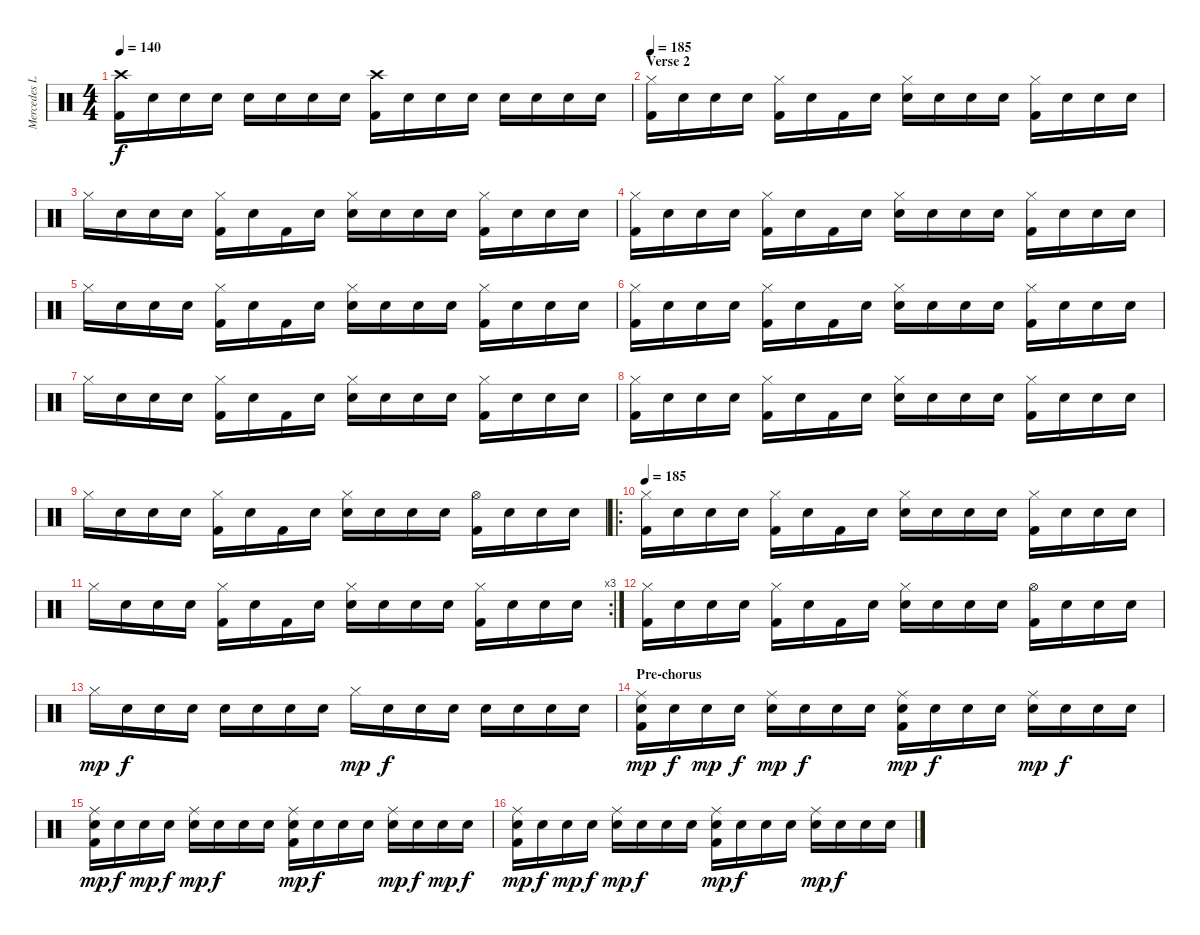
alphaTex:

\track ("Mercedes Lander - Drums" "Mercedes L") {instrument percussion}
\staff {score}
\articulation defaults
\ts (4 4)
\tempo 140
\clef neutral
\ks c
("Crash high (hit)" "Kick (hit) 2").16{dy f} "Snare (hit)".16 "Snare (hit)".16 "Snare (hit)".16 "Snare (hit)".16 "Snare (hit)".16 "Snare (hit)".16 "Snare (hit)".16 ("Crash high (hit)" "Kick (hit) 2").16 "Snare (hit)".16 "Snare (hit)".16 "Snare (hit)".16 "Snare (hit)".16 "Snare (hit)".16 "Snare (hit)".16 "Snare (hit)".16 |
\section ("" "Verse 2")
\tempo 185
("Hi-Hat (closed)" "Kick (hit) 2").16{volume 16 balance 8} "Snare (hit)".16 "Snare (hit)".16 "Snare (hit)".16 ("Hi-Hat (closed)" "Kick (hit) 2").16 "Snare (hit)".16 "Kick (hit) 2".16 "Snare (hit)".16 ("Hi-Hat (closed)" "Snare (hit) 2").16 "Snare (hit)".16 "Snare (hit)".16 "Snare (hit)".16 ("Hi-Hat (closed)" "Kick (hit) 2").16 "Snare (hit)".16 "Snare (hit)".16 "Snare (hit)".16 |
"Hi-Hat (closed)".16 "Snare (hit)".16 "Snare (hit)".16 "Snare (hit)".16 ("Hi-Hat (closed)" "Kick (hit) 2").16 "Snare (hit)".16 "Kick (hit) 2".16 "Snare (hit)".16 ("Hi-Hat (closed)" "Electric Snare (hit)").16 "Snare (hit)".16 "Snare (hit)".16 "Snare (hit)".16 ("Hi-Hat (closed)" "Kick (hit) 2").16 "Snare (hit)".16 "Snare (hit)".16 "Snare (hit)".16 |
("Hi-Hat (closed)" "Kick (hit) 2").16 "Snare (hit)".16 "Snare (hit)".16 "Snare (hit)".16 ("Hi-Hat (closed)" "Kick (hit) 2").16 "Snare (hit)".16 "Kick (hit) 2".16 "Snare (hit)".16 ("Hi-Hat (closed)" "Snare (hit) 2").16 "Snare (hit)".16 "Snare (hit)".16 "Snare (hit)".16 ("Hi-Hat (closed)" "Kick (hit) 2").16 "Snare (hit)".16 "Snare (hit)".16 "Snare (hit)".16 |
"Hi-Hat (closed)".16 "Snare (hit)".16 "Snare (hit)".16 "Snare (hit)".16 ("Hi-Hat (closed)" "Kick (hit) 2").16 "Snare (hit)".16 "Kick (hit) 2".16 "Snare (hit)".16 ("Hi-Hat (closed)" "Electric Snare (hit)").16 "Snare (hit)".16 "Snare (hit)".16 "Snare (hit)".16 ("Hi-Hat (closed)" "Kick (hit) 2").16 "Snare (hit)".16 "Snare (hit)".16 "Snare (hit)".16 |
("Hi-Hat (closed)" "Kick (hit) 2").16 "Snare (hit)".16 "Snare (hit)".16 "Snare (hit)".16 ("Hi-Hat (closed)" "Kick (hit) 2").16 "Snare (hit)".16 "Kick (hit) 2".16 "Snare (hit)".16 ("Hi-Hat (closed)" "Snare (hit) 2").16 "Snare (hit)".16 "Snare (hit)".16 "Snare (hit)".16 ("Hi-Hat (closed)" "Kick (hit) 2").16 "Snare (hit)".16 "Snare (hit)".16 "Snare (hit)".16 |
"Hi-Hat (closed)".16 "Snare (hit)".16 "Snare (hit)".16 "Snare (hit)".16 ("Hi-Hat (closed)" "Kick (hit) 2").16 "Snare (hit)".16 "Kick (hit) 2".16 "Snare (hit)".16 ("Hi-Hat (closed)" "Electric Snare (hit)").16 "Snare (hit)".16 "Snare (hit)".16 "Snare (hit)".16 ("Hi-Hat (closed)" "Kick (hit) 2").16 "Snare (hit)".16 "Snare (hit)".16 "Snare (hit)".16 |
("Hi-Hat (closed)" "Kick (hit) 2").16 "Snare (hit)".16 "Snare (hit)".16 "Snare (hit)".16 ("Hi-Hat (closed)" "Kick (hit) 2").16 "Snare (hit)".16 "Kick (hit) 2".16 "Snare (hit)".16 ("Hi-Hat (closed)" "Snare (hit) 2").16 "Snare (hit)".16 "Snare (hit)".16 "Snare (hit)".16 ("Hi-Hat (closed)" "Kick (hit) 2").16 "Snare (hit)".16 "Snare (hit)".16 "Snare (hit)".16 |
"Hi-Hat (closed)".16 "Snare (hit)".16 "Snare (hit)".16 "Snare (hit)".16 ("Hi-Hat (closed)" "Kick (hit) 2").16 "Snare (hit)".16 "Kick (hit) 2".16 "Snare (hit)".16 ("Hi-Hat (closed)" "Electric Snare (hit)").16 "Snare (hit)".16 "Snare (hit)".16 "Snare (hit)".16 ("Hi-Hat (open)" "Kick (hit) 2").16 "Snare (hit)".16 "Snare (hit)".16 "Snare (hit)".16 |
\ro
\tempo 185
("Hi-Hat (closed)" "Kick (hit) 2").16{volume 16 balance 8} "Snare (hit)".16 "Snare (hit)".16 "Snare (hit)".16 ("Hi-Hat (closed)" "Kick (hit) 2").16 "Snare (hit)".16 "Kick (hit) 2".16 "Snare (hit)".16 ("Hi-Hat (closed)" "Snare (hit) 2").16 "Snare (hit)".16 "Snare (hit)".16 "Snare (hit)".16 ("Hi-Hat (closed)" "Kick (hit) 2").16 "Snare (hit)".16 "Snare (hit)".16 "Snare (hit)".16 |
\rc 3 "Hi-Hat (closed)".16 "Snare (hit)".16 "Snare (hit)".16 "Snare (hit)".16
("Hi-Hat (closed)" "Kick (hit) 2").16 "Snare (hit)".16 "Kick (hit) 2".16 "Snare (hit)".16 ("Hi-Hat (closed)" "Electric Snare (hit)").16 "Snare (hit)".16 "Snare (hit)".16 "Snare (hit)".16 ("Hi-Hat (closed)" "Kick (hit) 2").16 "Snare (hit)".16 "Snare (hit)".16 "Snare (hit)".16 |
("Hi-Hat (closed)" "Kick (hit) 2").16 "Snare (hit)".16 "Snare (hit)".16 "Snare (hit)".16 ("Hi-Hat (closed)" "Kick (hit) 2").16 "Snare (hit)".16 "Kick (hit) 2".16 "Snare (hit)".16 ("Hi-Hat (closed)" "Snare (hit) 2").16 "Snare (hit)".16 "Snare (hit)".16 "Snare (hit)".16 ("Hi-Hat (open)" "Kick (hit) 2").16 "Snare (hit)".16 "Snare (hit)".16 "Snare (hit)".16 |
"Hi-Hat (closed)".16{dy mp} "Snare (hit)".16{dy f} "Snare (hit)".16 "Snare (hit)".16 "Snare (hit)".16 "Snare (hit)".16 "Snare (hit)".16 "Snare (hit)".16 "Hi-Hat (closed)".16{dy mp} "Snare (hit)".16{dy f} "Snare (hit)".16 "Snare (hit)".16 "Snare (hit)".16 "Snare (hit)".16 "Snare (hit)".16 "Snare (hit)".16 |
\section ("" "Pre-chorus")
("Ride (middle)" "Electric Snare (hit)" "Kick (hit) 2").16{dy mp} "Snare (hit)".16{dy f} "Electric Snare (hit)".16{dy mp} "Snare (hit)".16{dy f} ("Ride (middle)" "Electric Snare (hit)").16{dy mp} "Snare (hit)".16{dy f} "Snare (hit)".16 "Snare (hit)".16 ("Ride (middle)" "Electric Snare (hit)" "Kick (hit) 2").16{dy mp} "Snare (hit)".16{dy f} "Snare (hit)".16 "Snare (hit)".16 ("Ride (middle)" "Electric Snare (hit)").16{dy mp} "Snare (hit)".16{dy f} "Snare (hit)".16 "Snare (hit)".16 |
("Ride (middle)" "Electric Snare (hit)" "Kick (hit) 2").16{dy mp} "Snare (hit)".16{dy f} "Electric Snare (hit)".16{dy mp} "Snare (hit)".16{dy f} ("Ride (middle)" "Electric Snare (hit)").16{dy mp} "Snare (hit)".16{dy f} "Snare (hit)".16 "Snare (hit)".16 ("Ride (middle)" "Electric Snare (hit)" "Kick (hit) 2").16{dy mp} "Snare (hit)".16{dy f} "Snare (hit)".16 "Snare (hit)".16 ("Ride (middle)" "Electric Snare (hit)").16{dy mp} "Snare (hit)".16{dy f} "Electric Snare (hit)".16{dy mp} "Snare (hit)".16{dy f} |
("Ride (middle)" "Electric Snare (hit)" "Kick (hit) 2").16{dy mp} "Snare (hit)".16{dy f} "Electric Snare (hit)".16{dy mp} "Snare (hit)".16{dy f} ("Ride (middle)" "Electric Snare (hit)").16{dy mp} "Snare (hit)".16{dy f} "Snare (hit)".16 "Snare (hit)".16 ("Ride (middle)" "Electric Snare (hit)" "Kick (hit) 2").16{dy mp} "Snare (hit)".16{dy f} "Snare (hit)".16 "Snare (hit)".16 ("Ride (middle)" "Electric Snare (hit)").16{dy mp} "Snare (hit)".16{dy f} "Snare (hit)".16 "Snare (hit)".16
